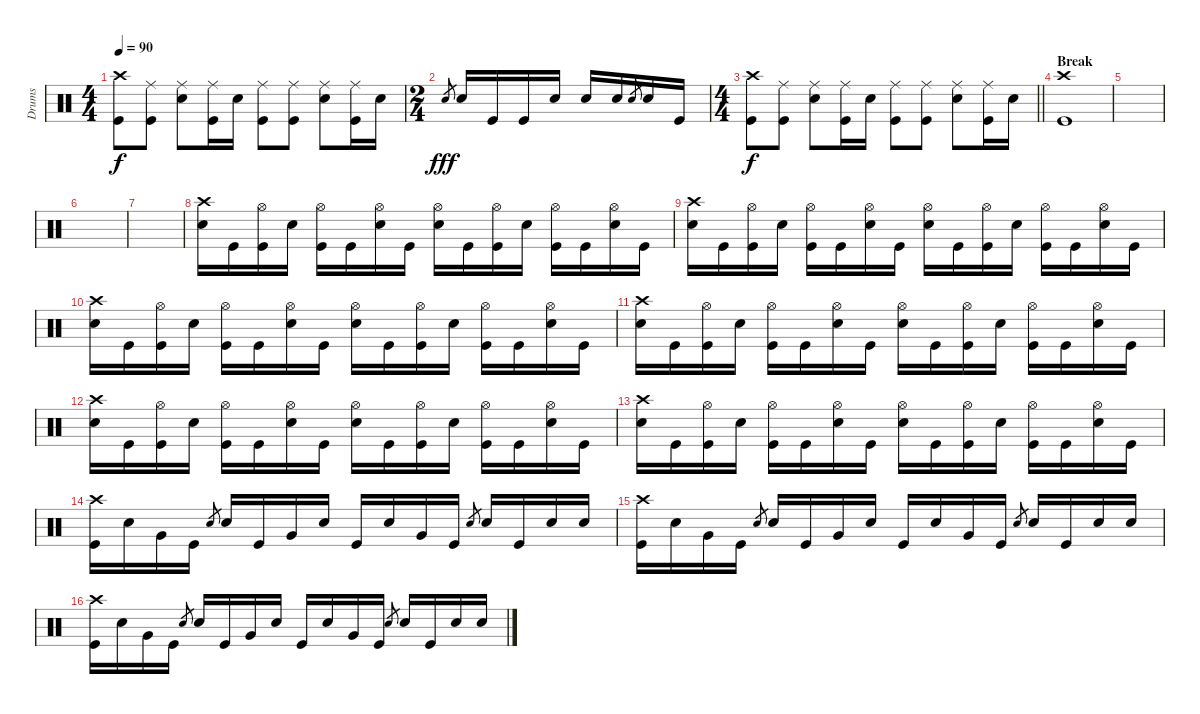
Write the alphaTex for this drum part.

\track ("Drums" "Drums") {instrument percussion}
\staff {score}
\articulation defaults
\ts (4 4)
\tempo 90
\clef neutral
\ks c
("Crash high (hit)" "Kick (hit)").8{dy f} ("Kick (hit)" "Ride (middle)").8 ("Ride (middle)" "Snare (hit) 2").8 ("Ride (middle)" "Kick (hit)").16 "Snare (hit) 2".16 ("Ride (middle)" "Kick (hit)").8 ("Kick (hit)" "Ride (middle)").8 ("Snare (hit) 2" "Ride (middle)").8 ("Kick (hit)" "Ride (middle)").16 "Snare (hit) 2".16 |
\ts (2 4)
"Snare (hit) 2".8{gr dy fff} "Snare (hit) 2".16 "Kick (hit)".16 "Kick (hit)".16 "Snare (hit) 2".16 "Snare (hit) 2".16 "Snare (hit) 2".16 "Snare (hit) 2".8{gr} "Snare (hit) 2".16 "Kick (hit)".16 |
\ts (4 4)
\barLineRight lightlight
("Crash high (hit)" "Kick (hit)").8{dy f} ("Kick (hit)" "Ride (middle)").8 ("Ride (middle)" "Snare (hit) 2").8 ("Ride (middle)" "Kick (hit)").16 "Snare (hit) 2".16 ("Ride (middle)" "Kick (hit)").8 ("Kick (hit)" "Ride (middle)").8 ("Snare (hit) 2" "Ride (middle)").8 ("Kick (hit)" "Ride (middle)").16 "Snare (hit) 2".16 |
\section ("" "Break")
("Crash high (hit)" "Kick (hit)").1 |
|
|
|
("Crash high (hit)" "Snare (hit) 2").16 "Kick (hit)".16 ("Kick (hit)" "Hi-Hat (open)").16 "Snare (hit) 2".16 ("Kick (hit)" "Hi-Hat (open)").16 "Kick (hit)".16 ("Snare (hit) 2" "Hi-Hat (open)").16 "Kick (hit)".16 ("Hi-Hat (open)" "Snare (hit) 2").16 "Kick (hit)".16 ("Kick (hit)" "Hi-Hat (open)").16 "Snare (hit) 2".16 ("Kick (hit)" "Hi-Hat (open)").16 "Kick (hit)".16 ("Snare (hit) 2" "Hi-Hat (open)").16 "Kick (hit)".16 |
("Crash high (hit)" "Snare (hit) 2").16 "Kick (hit)".16 ("Kick (hit)" "Hi-Hat (open)").16 "Snare (hit) 2".16 ("Kick (hit)" "Hi-Hat (open)").16 "Kick (hit)".16 ("Snare (hit) 2" "Hi-Hat (open)").16 "Kick (hit)".16 ("Hi-Hat (open)" "Snare (hit) 2").16 "Kick (hit)".16 ("Kick (hit)" "Hi-Hat (open)").16 "Snare (hit) 2".16 ("Kick (hit)" "Hi-Hat (open)").16 "Kick (hit)".16 ("Snare (hit) 2" "Hi-Hat (open)").16 "Kick (hit)".16 |
("Crash high (hit)" "Snare (hit) 2").16 "Kick (hit)".16 ("Kick (hit)" "Hi-Hat (open)").16 "Snare (hit) 2".16 ("Kick (hit)" "Hi-Hat (open)").16 "Kick (hit)".16 ("Snare (hit) 2" "Hi-Hat (open)").16 "Kick (hit)".16 ("Hi-Hat (open)" "Snare (hit) 2").16 "Kick (hit)".16 ("Kick (hit)" "Hi-Hat (open)").16 "Snare (hit) 2".16 ("Kick (hit)" "Hi-Hat (open)").16 "Kick (hit)".16 ("Snare (hit) 2" "Hi-Hat (open)").16 "Kick (hit)".16 |
("Crash high (hit)" "Snare (hit) 2").16 "Kick (hit)".16 ("Kick (hit)" "Hi-Hat (open)").16 "Snare (hit) 2".16 ("Kick (hit)" "Hi-Hat (open)").16 "Kick (hit)".16 ("Snare (hit) 2" "Hi-Hat (open)").16 "Kick (hit)".16 ("Hi-Hat (open)" "Snare (hit) 2").16 "Kick (hit)".16 ("Kick (hit)" "Hi-Hat (open)").16 "Snare (hit) 2".16 ("Kick (hit)" "Hi-Hat (open)").16 "Kick (hit)".16 ("Snare (hit) 2" "Hi-Hat (open)").16 "Kick (hit)".16 |
("Crash high (hit)" "Snare (hit) 2").16 "Kick (hit)".16 ("Kick (hit)" "Hi-Hat (open)").16 "Snare (hit) 2".16 ("Kick (hit)" "Hi-Hat (open)").16 "Kick (hit)".16 ("Snare (hit) 2" "Hi-Hat (open)").16 "Kick (hit)".16 ("Hi-Hat (open)" "Snare (hit) 2").16 "Kick (hit)".16 ("Kick (hit)" "Hi-Hat (open)").16 "Snare (hit) 2".16 ("Kick (hit)" "Hi-Hat (open)").16 "Kick (hit)".16 ("Snare (hit) 2" "Hi-Hat (open)").16 "Kick (hit)".16 |
("Crash high (hit)" "Snare (hit) 2").16 "Kick (hit)".16 ("Kick (hit)" "Hi-Hat (open)").16 "Snare (hit) 2".16 ("Kick (hit)" "Hi-Hat (open)").16 "Kick (hit)".16 ("Snare (hit) 2" "Hi-Hat (open)").16 "Kick (hit)".16 ("Hi-Hat (open)" "Snare (hit) 2").16 "Kick (hit)".16 ("Kick (hit)" "Hi-Hat (open)").16 "Snare (hit) 2".16 ("Kick (hit)" "Hi-Hat (open)").16 "Kick (hit)".16 ("Snare (hit) 2" "Hi-Hat (open)").16 "Kick (hit)".16 |
("Crash high (hit)" "Kick (hit)").16 "Snare (hit) 2".16 "Very Low Tom (hit)".16 "Kick (hit)".16 "Snare (hit) 2".8{gr} "Snare (hit) 2".16 "Kick (hit)".16 "Very Low Tom (hit)".16 "Snare (hit) 2".16 "Kick (hit)".16 "Snare (hit) 2".16 "Very Low Tom (hit)".16 "Kick (hit)".16 "Snare (hit) 2".8{gr} "Snare (hit) 2".16 "Kick (hit)".16 "Snare (hit) 2".16 "Snare (hit) 2".16 |
("Crash high (hit)" "Kick (hit)").16 "Snare (hit) 2".16 "Very Low Tom (hit)".16 "Kick (hit)".16 "Snare (hit) 2".8{gr} "Snare (hit) 2".16 "Kick (hit)".16 "Very Low Tom (hit)".16 "Snare (hit) 2".16 "Kick (hit)".16 "Snare (hit) 2".16 "Very Low Tom (hit)".16 "Kick (hit)".16 "Snare (hit) 2".8{gr} "Snare (hit) 2".16 "Kick (hit)".16 "Snare (hit) 2".16 "Snare (hit) 2".16 |
("Crash high (hit)" "Kick (hit)").16 "Snare (hit) 2".16 "Very Low Tom (hit)".16 "Kick (hit)".16 "Snare (hit) 2".8{gr} "Snare (hit) 2".16 "Kick (hit)".16 "Very Low Tom (hit)".16 "Snare (hit) 2".16 "Kick (hit)".16 "Snare (hit) 2".16 "Very Low Tom (hit)".16 "Kick (hit)".16 "Snare (hit) 2".8{gr} "Snare (hit) 2".16 "Kick (hit)".16 "Snare (hit) 2".16 "Snare (hit) 2".16
